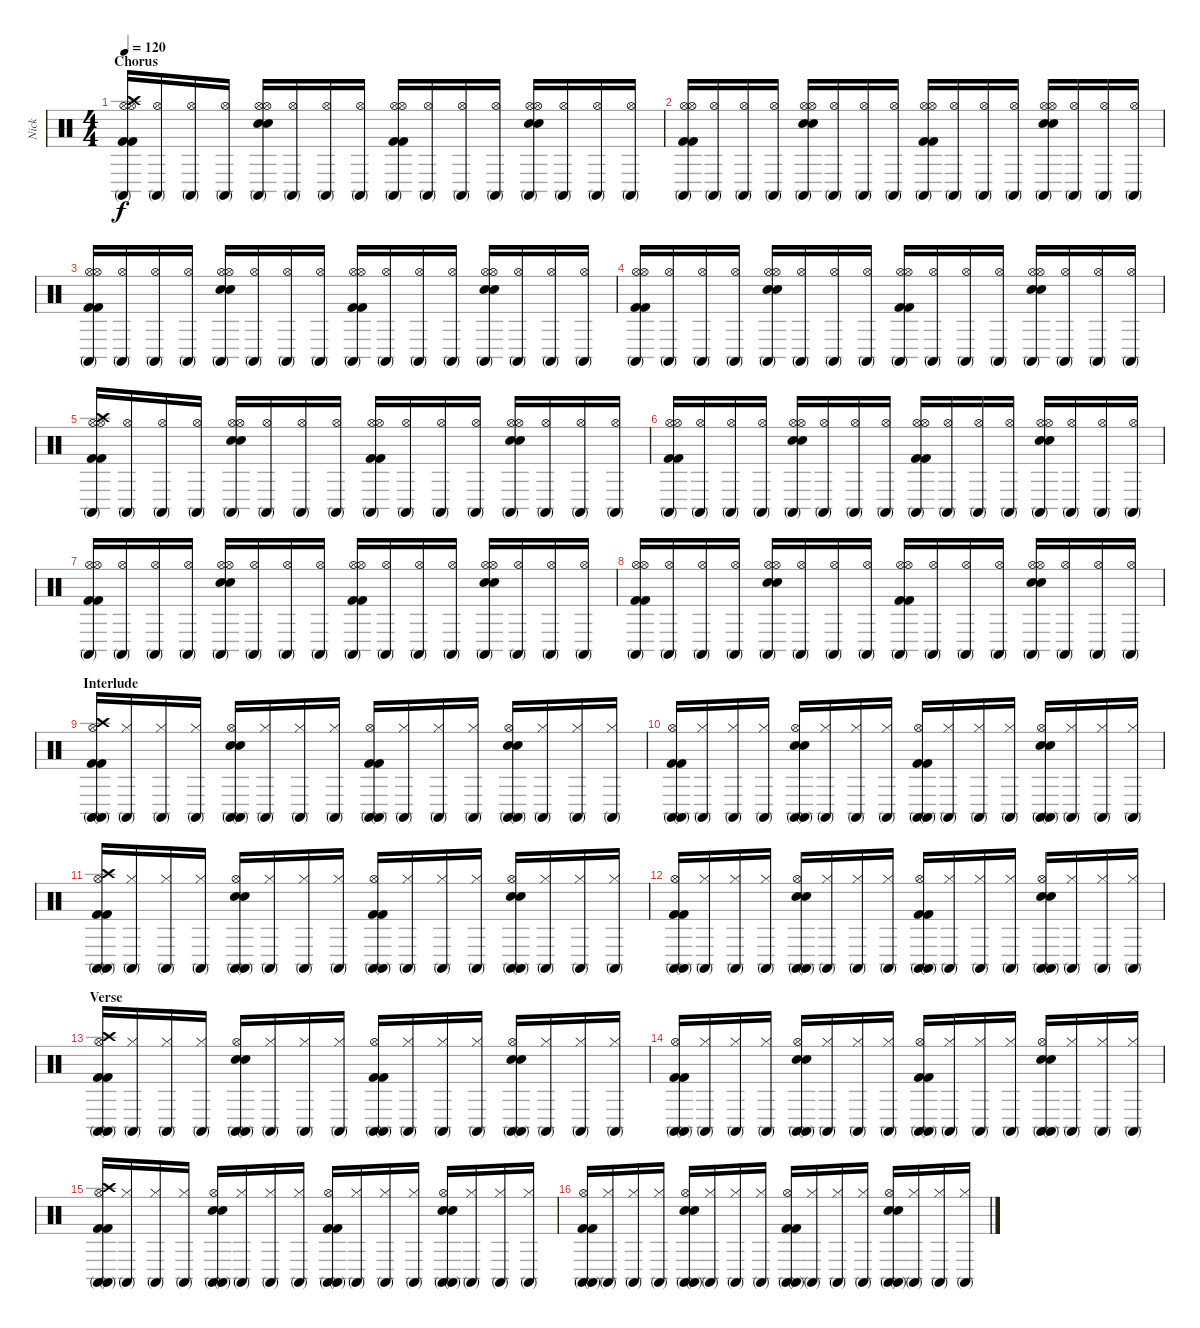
\track ("Nick" "Nick") {instrument percussion}
\staff {score}
\articulation defaults
\ts (4 4)
\section ("" "Chorus")
\tempo 120
\clef neutral
\ks c
("Hi-Hat (open)" "Hi-Hat (open)" "Crash high (hit)" "Kick (hit) 2" "Kick (hit) 2" "Conga high (mute)").16{dy f} ("Hi-Hat (open)" "Conga high (mute)").16 ("Hi-Hat (open)" "Conga high (mute)").16 ("Hi-Hat (open)" "Conga high (mute)").16 ("Hi-Hat (open)" "Hi-Hat (open)" "Snare (hit) 2" "Snare (hit) 2" "Conga high (mute)").16 ("Hi-Hat (open)" "Conga high (mute)").16 ("Hi-Hat (open)" "Conga high (mute)").16 ("Hi-Hat (open)" "Conga high (mute)").16 ("Hi-Hat (open)" "Hi-Hat (open)" "Kick (hit) 2" "Kick (hit) 2" "Conga high (mute)").16 ("Hi-Hat (open)" "Conga high (mute)").16 ("Hi-Hat (open)" "Conga high (mute)").16 ("Hi-Hat (open)" "Conga high (mute)").16 ("Hi-Hat (open)" "Hi-Hat (open)" "Snare (hit) 2" "Snare (hit) 2" "Conga high (mute)").16 ("Hi-Hat (open)" "Conga high (mute)").16 ("Hi-Hat (open)" "Conga high (mute)").16 ("Hi-Hat (open)" "Conga high (mute)").16 |
("Hi-Hat (open)" "Hi-Hat (open)" "Kick (hit) 2" "Kick (hit) 2" "Conga high (mute)").16 ("Hi-Hat (open)" "Conga high (mute)").16 ("Hi-Hat (open)" "Conga high (mute)").16 ("Hi-Hat (open)" "Conga high (mute)").16 ("Hi-Hat (open)" "Hi-Hat (open)" "Snare (hit) 2" "Snare (hit) 2" "Conga high (mute)").16 ("Hi-Hat (open)" "Conga high (mute)").16 ("Hi-Hat (open)" "Conga high (mute)").16 ("Hi-Hat (open)" "Conga high (mute)").16 ("Hi-Hat (open)" "Hi-Hat (open)" "Kick (hit) 2" "Kick (hit) 2" "Conga high (mute)").16 ("Hi-Hat (open)" "Conga high (mute)").16 ("Hi-Hat (open)" "Conga high (mute)").16 ("Hi-Hat (open)" "Conga high (mute)").16 ("Hi-Hat (open)" "Hi-Hat (open)" "Snare (hit) 2" "Snare (hit) 2" "Conga high (mute)").16 ("Hi-Hat (open)" "Conga high (mute)").16 ("Hi-Hat (open)" "Conga high (mute)").16 ("Hi-Hat (open)" "Conga high (mute)").16 |
("Hi-Hat (open)" "Hi-Hat (open)" "Kick (hit) 2" "Kick (hit) 2" "Conga high (mute)").16 ("Hi-Hat (open)" "Conga high (mute)").16 ("Hi-Hat (open)" "Conga high (mute)").16 ("Hi-Hat (open)" "Conga high (mute)").16 ("Hi-Hat (open)" "Hi-Hat (open)" "Snare (hit) 2" "Snare (hit) 2" "Conga high (mute)").16 ("Hi-Hat (open)" "Conga high (mute)").16 ("Hi-Hat (open)" "Conga high (mute)").16 ("Hi-Hat (open)" "Conga high (mute)").16 ("Hi-Hat (open)" "Hi-Hat (open)" "Kick (hit) 2" "Kick (hit) 2" "Conga high (mute)").16 ("Hi-Hat (open)" "Conga high (mute)").16 ("Hi-Hat (open)" "Conga high (mute)").16 ("Hi-Hat (open)" "Conga high (mute)").16 ("Hi-Hat (open)" "Hi-Hat (open)" "Snare (hit) 2" "Snare (hit) 2" "Conga high (mute)").16 ("Hi-Hat (open)" "Conga high (mute)").16 ("Hi-Hat (open)" "Conga high (mute)").16 ("Hi-Hat (open)" "Conga high (mute)").16 |
("Hi-Hat (open)" "Hi-Hat (open)" "Kick (hit) 2" "Kick (hit) 2" "Conga high (mute)").16 ("Hi-Hat (open)" "Conga high (mute)").16 ("Hi-Hat (open)" "Conga high (mute)").16 ("Hi-Hat (open)" "Conga high (mute)").16 ("Hi-Hat (open)" "Hi-Hat (open)" "Snare (hit) 2" "Snare (hit) 2" "Conga high (mute)").16 ("Hi-Hat (open)" "Conga high (mute)").16 ("Hi-Hat (open)" "Conga high (mute)").16 ("Hi-Hat (open)" "Conga high (mute)").16 ("Hi-Hat (open)" "Hi-Hat (open)" "Kick (hit) 2" "Kick (hit) 2" "Conga high (mute)").16 ("Hi-Hat (open)" "Conga high (mute)").16 ("Hi-Hat (open)" "Conga high (mute)").16 ("Hi-Hat (open)" "Conga high (mute)").16 ("Hi-Hat (open)" "Hi-Hat (open)" "Snare (hit) 2" "Snare (hit) 2" "Conga high (mute)").16 ("Hi-Hat (open)" "Conga high (mute)").16 ("Hi-Hat (open)" "Conga high (mute)").16 ("Hi-Hat (open)" "Conga high (mute)").16 |
("Hi-Hat (open)" "Hi-Hat (open)" "Crash high (hit)" "Kick (hit) 2" "Kick (hit) 2" "Conga high (mute)").16 ("Hi-Hat (open)" "Conga high (mute)").16 ("Hi-Hat (open)" "Conga high (mute)").16 ("Hi-Hat (open)" "Conga high (mute)").16 ("Hi-Hat (open)" "Hi-Hat (open)" "Snare (hit) 2" "Snare (hit) 2" "Conga high (mute)").16 ("Hi-Hat (open)" "Conga high (mute)").16 ("Hi-Hat (open)" "Conga high (mute)").16 ("Hi-Hat (open)" "Conga high (mute)").16 ("Hi-Hat (open)" "Hi-Hat (open)" "Kick (hit) 2" "Kick (hit) 2" "Conga high (mute)").16 ("Hi-Hat (open)" "Conga high (mute)").16 ("Hi-Hat (open)" "Conga high (mute)").16 ("Hi-Hat (open)" "Conga high (mute)").16 ("Hi-Hat (open)" "Hi-Hat (open)" "Snare (hit) 2" "Snare (hit) 2" "Conga high (mute)").16 ("Hi-Hat (open)" "Conga high (mute)").16 ("Hi-Hat (open)" "Conga high (mute)").16 ("Hi-Hat (open)" "Conga high (mute)").16 |
("Hi-Hat (open)" "Hi-Hat (open)" "Kick (hit) 2" "Kick (hit) 2" "Conga high (mute)").16 ("Hi-Hat (open)" "Conga high (mute)").16 ("Hi-Hat (open)" "Conga high (mute)").16 ("Hi-Hat (open)" "Conga high (mute)").16 ("Hi-Hat (open)" "Hi-Hat (open)" "Snare (hit) 2" "Snare (hit) 2" "Conga high (mute)").16 ("Hi-Hat (open)" "Conga high (mute)").16 ("Hi-Hat (open)" "Conga high (mute)").16 ("Hi-Hat (open)" "Conga high (mute)").16 ("Hi-Hat (open)" "Hi-Hat (open)" "Kick (hit) 2" "Kick (hit) 2" "Conga high (mute)").16 ("Hi-Hat (open)" "Conga high (mute)").16 ("Hi-Hat (open)" "Conga high (mute)").16 ("Hi-Hat (open)" "Conga high (mute)").16 ("Hi-Hat (open)" "Hi-Hat (open)" "Snare (hit) 2" "Snare (hit) 2" "Conga high (mute)").16 ("Hi-Hat (open)" "Conga high (mute)").16 ("Hi-Hat (open)" "Conga high (mute)").16 ("Hi-Hat (open)" "Conga high (mute)").16 |
("Hi-Hat (open)" "Hi-Hat (open)" "Kick (hit) 2" "Kick (hit) 2" "Conga high (mute)").16 ("Hi-Hat (open)" "Conga high (mute)").16 ("Hi-Hat (open)" "Conga high (mute)").16 ("Hi-Hat (open)" "Conga high (mute)").16 ("Hi-Hat (open)" "Hi-Hat (open)" "Snare (hit) 2" "Snare (hit) 2" "Conga high (mute)").16 ("Hi-Hat (open)" "Conga high (mute)").16 ("Hi-Hat (open)" "Conga high (mute)").16 ("Hi-Hat (open)" "Conga high (mute)").16 ("Hi-Hat (open)" "Hi-Hat (open)" "Kick (hit) 2" "Kick (hit) 2" "Conga high (mute)").16 ("Hi-Hat (open)" "Conga high (mute)").16 ("Hi-Hat (open)" "Conga high (mute)").16 ("Hi-Hat (open)" "Conga high (mute)").16 ("Hi-Hat (open)" "Hi-Hat (open)" "Snare (hit) 2" "Snare (hit) 2" "Conga high (mute)").16 ("Hi-Hat (open)" "Conga high (mute)").16 ("Hi-Hat (open)" "Conga high (mute)").16 ("Hi-Hat (open)" "Conga high (mute)").16 |
("Hi-Hat (open)" "Hi-Hat (open)" "Kick (hit) 2" "Kick (hit) 2" "Conga high (mute)").16 ("Hi-Hat (open)" "Conga high (mute)").16 ("Hi-Hat (open)" "Conga high (mute)").16 ("Hi-Hat (open)" "Conga high (mute)").16 ("Hi-Hat (open)" "Hi-Hat (open)" "Snare (hit) 2" "Snare (hit) 2" "Conga high (mute)").16 ("Hi-Hat (open)" "Conga high (mute)").16 ("Hi-Hat (open)" "Conga high (mute)").16 ("Hi-Hat (open)" "Conga high (mute)").16 ("Hi-Hat (open)" "Hi-Hat (open)" "Kick (hit) 2" "Kick (hit) 2" "Conga high (mute)").16 ("Hi-Hat (open)" "Conga high (mute)").16 ("Hi-Hat (open)" "Conga high (mute)").16 ("Hi-Hat (open)" "Conga high (mute)").16 ("Hi-Hat (open)" "Hi-Hat (open)" "Snare (hit) 2" "Snare (hit) 2" "Conga high (mute)").16 ("Hi-Hat (open)" "Conga high (mute)").16 ("Hi-Hat (open)" "Conga high (mute)").16 ("Hi-Hat (open)" "Conga high (mute)").16 |
\section ("" "Interlude")
("Conga high (mute)" "Hi-Hat (open)" "Crash high (hit)" "Kick (hit) 2" "Kick (hit) 2" "Conga high (mute)").16 ("Hi-Hat (closed)" "Conga high (mute)").16 ("Hi-Hat (closed)" "Conga high (mute)").16 ("Hi-Hat (closed)" "Conga high (mute)").16 ("Conga high (mute)" "Hi-Hat (open)" "Snare (hit) 2" "Snare (hit) 2" "Conga high (mute)").16 ("Hi-Hat (closed)" "Conga high (mute)").16 ("Hi-Hat (closed)" "Conga high (mute)").16 ("Hi-Hat (closed)" "Conga high (mute)").16 ("Conga high (mute)" "Hi-Hat (open)" "Kick (hit) 2" "Kick (hit) 2" "Conga high (mute)").16 ("Hi-Hat (closed)" "Conga high (mute)").16 ("Hi-Hat (closed)" "Conga high (mute)").16 ("Hi-Hat (closed)" "Conga high (mute)").16 ("Conga high (mute)" "Hi-Hat (open)" "Snare (hit) 2" "Snare (hit) 2" "Conga high (mute)").16 ("Hi-Hat (closed)" "Conga high (mute)").16 ("Hi-Hat (closed)" "Conga high (mute)").16 ("Hi-Hat (closed)" "Conga high (mute)").16 |
("Conga high (mute)" "Hi-Hat (open)" "Kick (hit) 2" "Kick (hit) 2" "Conga high (mute)").16 ("Hi-Hat (closed)" "Conga high (mute)").16 ("Hi-Hat (closed)" "Conga high (mute)").16 ("Hi-Hat (closed)" "Conga high (mute)").16 ("Conga high (mute)" "Hi-Hat (open)" "Snare (hit) 2" "Snare (hit) 2" "Conga high (mute)").16 ("Hi-Hat (closed)" "Conga high (mute)").16 ("Hi-Hat (closed)" "Conga high (mute)").16 ("Hi-Hat (closed)" "Conga high (mute)").16 ("Conga high (mute)" "Hi-Hat (open)" "Kick (hit) 2" "Kick (hit) 2" "Conga high (mute)").16 ("Hi-Hat (closed)" "Conga high (mute)").16 ("Hi-Hat (closed)" "Conga high (mute)").16 ("Hi-Hat (closed)" "Conga high (mute)").16 ("Conga high (mute)" "Hi-Hat (open)" "Snare (hit) 2" "Snare (hit) 2" "Conga high (mute)").16 ("Hi-Hat (closed)" "Conga high (mute)").16 ("Hi-Hat (closed)" "Conga high (mute)").16 ("Hi-Hat (closed)" "Conga high (mute)").16 |
("Conga high (mute)" "Hi-Hat (open)" "Crash high (hit)" "Kick (hit) 2" "Kick (hit) 2" "Conga high (mute)").16 ("Hi-Hat (closed)" "Conga high (mute)").16 ("Hi-Hat (closed)" "Conga high (mute)").16 ("Hi-Hat (closed)" "Conga high (mute)").16 ("Conga high (mute)" "Hi-Hat (open)" "Snare (hit) 2" "Snare (hit) 2" "Conga high (mute)").16 ("Hi-Hat (closed)" "Conga high (mute)").16 ("Hi-Hat (closed)" "Conga high (mute)").16 ("Hi-Hat (closed)" "Conga high (mute)").16 ("Conga high (mute)" "Hi-Hat (open)" "Kick (hit) 2" "Kick (hit) 2" "Conga high (mute)").16 ("Hi-Hat (closed)" "Conga high (mute)").16 ("Hi-Hat (closed)" "Conga high (mute)").16 ("Hi-Hat (closed)" "Conga high (mute)").16 ("Conga high (mute)" "Hi-Hat (open)" "Snare (hit) 2" "Snare (hit) 2" "Conga high (mute)").16 ("Hi-Hat (closed)" "Conga high (mute)").16 ("Hi-Hat (closed)" "Conga high (mute)").16 ("Hi-Hat (closed)" "Conga high (mute)").16 |
("Conga high (mute)" "Hi-Hat (open)" "Kick (hit) 2" "Kick (hit) 2" "Conga high (mute)").16 ("Hi-Hat (closed)" "Conga high (mute)").16 ("Hi-Hat (closed)" "Conga high (mute)").16 ("Hi-Hat (closed)" "Conga high (mute)").16 ("Conga high (mute)" "Hi-Hat (open)" "Snare (hit) 2" "Snare (hit) 2" "Conga high (mute)").16 ("Hi-Hat (closed)" "Conga high (mute)").16 ("Hi-Hat (closed)" "Conga high (mute)").16 ("Hi-Hat (closed)" "Conga high (mute)").16 ("Conga high (mute)" "Hi-Hat (open)" "Kick (hit) 2" "Kick (hit) 2" "Conga high (mute)").16 ("Hi-Hat (closed)" "Conga high (mute)").16 ("Hi-Hat (closed)" "Conga high (mute)").16 ("Hi-Hat (closed)" "Conga high (mute)").16 ("Conga high (mute)" "Hi-Hat (open)" "Snare (hit) 2" "Snare (hit) 2" "Conga high (mute)").16 ("Hi-Hat (closed)" "Conga high (mute)").16 ("Hi-Hat (closed)" "Conga high (mute)").16 ("Hi-Hat (closed)" "Conga high (mute)").16 |
\section ("" "Verse")
("Conga high (mute)" "Hi-Hat (open)" "Crash high (hit)" "Kick (hit) 2" "Kick (hit) 2" "Conga high (mute)").16 ("Hi-Hat (closed)" "Conga high (mute)").16 ("Hi-Hat (closed)" "Conga high (mute)").16 ("Hi-Hat (closed)" "Conga high (mute)").16 ("Conga high (mute)" "Hi-Hat (open)" "Snare (hit) 2" "Snare (hit) 2" "Conga high (mute)").16 ("Hi-Hat (closed)" "Conga high (mute)").16 ("Hi-Hat (closed)" "Conga high (mute)").16 ("Hi-Hat (closed)" "Conga high (mute)").16 ("Conga high (mute)" "Hi-Hat (open)" "Kick (hit) 2" "Kick (hit) 2" "Conga high (mute)").16 ("Hi-Hat (closed)" "Conga high (mute)").16 ("Hi-Hat (closed)" "Conga high (mute)").16 ("Hi-Hat (closed)" "Conga high (mute)").16 ("Conga high (mute)" "Hi-Hat (open)" "Snare (hit) 2" "Snare (hit) 2" "Conga high (mute)").16 ("Hi-Hat (closed)" "Conga high (mute)").16 ("Hi-Hat (closed)" "Conga high (mute)").16 ("Hi-Hat (closed)" "Conga high (mute)").16 |
("Conga high (mute)" "Hi-Hat (open)" "Kick (hit) 2" "Kick (hit) 2" "Conga high (mute)").16 ("Hi-Hat (closed)" "Conga high (mute)").16 ("Hi-Hat (closed)" "Conga high (mute)").16 ("Hi-Hat (closed)" "Conga high (mute)").16 ("Conga high (mute)" "Hi-Hat (open)" "Snare (hit) 2" "Snare (hit) 2" "Conga high (mute)").16 ("Hi-Hat (closed)" "Conga high (mute)").16 ("Hi-Hat (closed)" "Conga high (mute)").16 ("Hi-Hat (closed)" "Conga high (mute)").16 ("Conga high (mute)" "Hi-Hat (open)" "Kick (hit) 2" "Kick (hit) 2" "Conga high (mute)").16 ("Hi-Hat (closed)" "Conga high (mute)").16 ("Hi-Hat (closed)" "Conga high (mute)").16 ("Hi-Hat (closed)" "Conga high (mute)").16 ("Conga high (mute)" "Hi-Hat (open)" "Snare (hit) 2" "Snare (hit) 2" "Conga high (mute)").16 ("Hi-Hat (closed)" "Conga high (mute)").16 ("Hi-Hat (closed)" "Conga high (mute)").16 ("Hi-Hat (closed)" "Conga high (mute)").16 |
("Conga high (mute)" "Hi-Hat (open)" "Crash high (hit)" "Kick (hit) 2" "Kick (hit) 2" "Conga high (mute)").16 ("Hi-Hat (closed)" "Conga high (mute)").16 ("Hi-Hat (closed)" "Conga high (mute)").16 ("Hi-Hat (closed)" "Conga high (mute)").16 ("Conga high (mute)" "Hi-Hat (open)" "Snare (hit) 2" "Snare (hit) 2" "Conga high (mute)").16 ("Hi-Hat (closed)" "Conga high (mute)").16 ("Hi-Hat (closed)" "Conga high (mute)").16 ("Hi-Hat (closed)" "Conga high (mute)").16 ("Conga high (mute)" "Hi-Hat (open)" "Kick (hit) 2" "Kick (hit) 2" "Conga high (mute)").16 ("Hi-Hat (closed)" "Conga high (mute)").16 ("Hi-Hat (closed)" "Conga high (mute)").16 ("Hi-Hat (closed)" "Conga high (mute)").16 ("Conga high (mute)" "Hi-Hat (open)" "Snare (hit) 2" "Snare (hit) 2" "Conga high (mute)").16 ("Hi-Hat (closed)" "Conga high (mute)").16 ("Hi-Hat (closed)" "Conga high (mute)").16 ("Hi-Hat (closed)" "Conga high (mute)").16 |
("Conga high (mute)" "Hi-Hat (open)" "Kick (hit) 2" "Kick (hit) 2" "Conga high (mute)").16 ("Hi-Hat (closed)" "Conga high (mute)").16 ("Hi-Hat (closed)" "Conga high (mute)").16 ("Hi-Hat (closed)" "Conga high (mute)").16 ("Conga high (mute)" "Hi-Hat (open)" "Snare (hit) 2" "Snare (hit) 2" "Conga high (mute)").16 ("Hi-Hat (closed)" "Conga high (mute)").16 ("Hi-Hat (closed)" "Conga high (mute)").16 ("Hi-Hat (closed)" "Conga high (mute)").16 ("Conga high (mute)" "Hi-Hat (open)" "Kick (hit) 2" "Kick (hit) 2" "Conga high (mute)").16 ("Hi-Hat (closed)" "Conga high (mute)").16 ("Hi-Hat (closed)" "Conga high (mute)").16 ("Hi-Hat (closed)" "Conga high (mute)").16 ("Conga high (mute)" "Hi-Hat (open)" "Snare (hit) 2" "Snare (hit) 2" "Conga high (mute)").16 ("Hi-Hat (closed)" "Conga high (mute)").16 ("Hi-Hat (closed)" "Conga high (mute)").16 ("Hi-Hat (closed)" "Conga high (mute)").16
